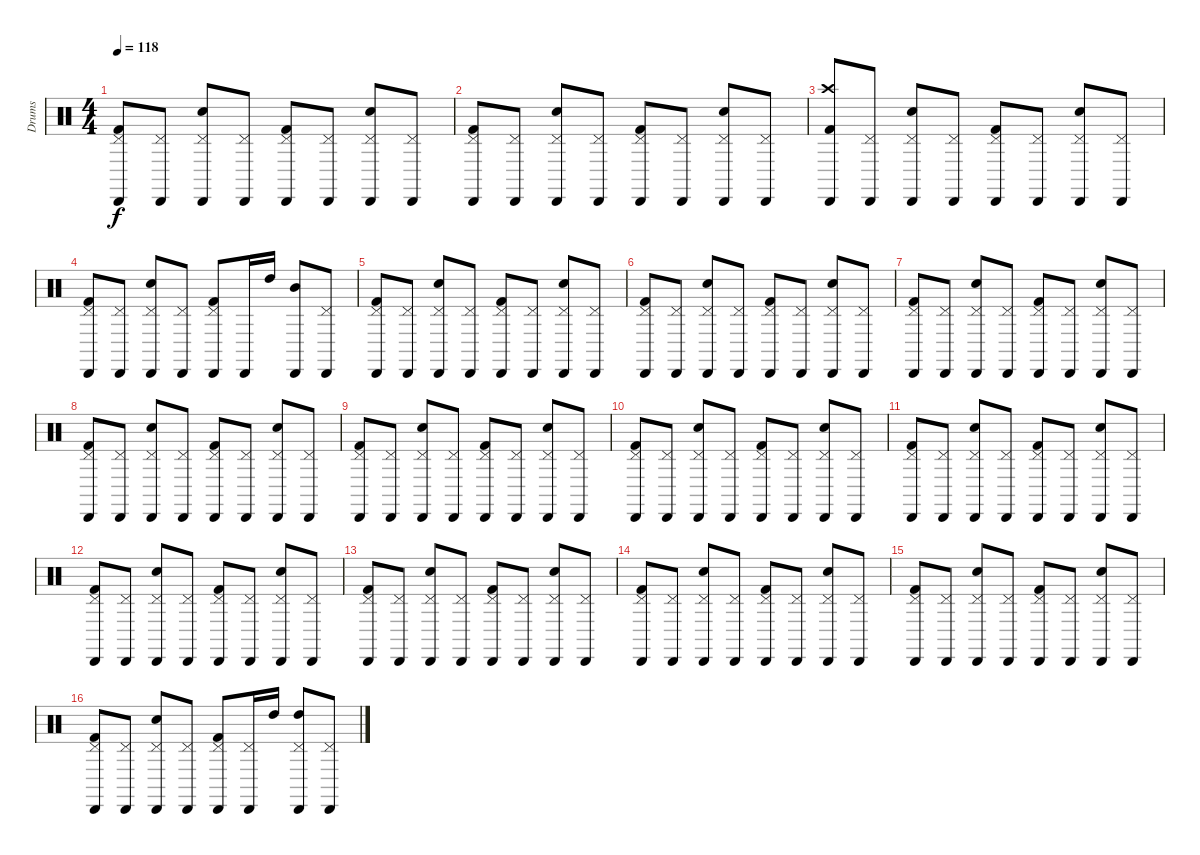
\track ("Drums" "Drums") {instrument percussion}
\staff {score}
\articulation defaults
\ts (4 4)
\tempo 118
\clef neutral
\ks c
("Kick (hit) 2" "Pedal Hi-Hat (hit)" "Cabasa (hit)").8{dy f} ("Pedal Hi-Hat (hit)" "Cabasa (hit)").8 ("Pedal Hi-Hat (hit)" "Electric Snare (hit)" "Cabasa (hit)").8 ("Pedal Hi-Hat (hit)" "Cabasa (hit)").8 ("Kick (hit) 2" "Pedal Hi-Hat (hit)" "Cabasa (hit)").8 ("Pedal Hi-Hat (hit)" "Cabasa (hit)").8 ("Pedal Hi-Hat (hit)" "Electric Snare (hit)" "Cabasa (hit)").8 ("Pedal Hi-Hat (hit)" "Cabasa (hit)").8 |
("Kick (hit) 2" "Pedal Hi-Hat (hit)" "Cabasa (hit)").8 ("Pedal Hi-Hat (hit)" "Cabasa (hit)").8 ("Pedal Hi-Hat (hit)" "Electric Snare (hit)" "Cabasa (hit)").8 ("Pedal Hi-Hat (hit)" "Cabasa (hit)").8 ("Kick (hit) 2" "Pedal Hi-Hat (hit)" "Cabasa (hit)").8 ("Pedal Hi-Hat (hit)" "Cabasa (hit)").8 ("Pedal Hi-Hat (hit)" "Electric Snare (hit)" "Cabasa (hit)").8 ("Pedal Hi-Hat (hit)" "Cabasa (hit)").8 |
("Kick (hit) 2" "Crash high (hit)" "Cabasa (hit)").8 ("Pedal Hi-Hat (hit)" "Cabasa (hit)").8 ("Pedal Hi-Hat (hit)" "Electric Snare (hit)" "Cabasa (hit)").8 ("Pedal Hi-Hat (hit)" "Cabasa (hit)").8 ("Kick (hit) 2" "Pedal Hi-Hat (hit)" "Cabasa (hit)").8 ("Pedal Hi-Hat (hit)" "Cabasa (hit)").8 ("Pedal Hi-Hat (hit)" "Electric Snare (hit)" "Cabasa (hit)").8 ("Pedal Hi-Hat (hit)" "Cabasa (hit)").8 |
("Kick (hit) 2" "Pedal Hi-Hat (hit)" "Cabasa (hit)").8 ("Pedal Hi-Hat (hit)" "Cabasa (hit)").8 ("Pedal Hi-Hat (hit)" "Electric Snare (hit)" "Cabasa (hit)").8 ("Pedal Hi-Hat (hit)" "Cabasa (hit)").8 ("Kick (hit) 2" "Pedal Hi-Hat (hit)" "Cabasa (hit)").8 "Cabasa (hit)".16 "High Tom (hit)".16 ("Mid Tom (hit)" "Cabasa (hit)").8 ("Pedal Hi-Hat (hit)" "Cabasa (hit)").8 |
("Kick (hit) 2" "Pedal Hi-Hat (hit)" "Cabasa (hit)").8 ("Pedal Hi-Hat (hit)" "Cabasa (hit)").8 ("Pedal Hi-Hat (hit)" "Electric Snare (hit)" "Cabasa (hit)").8 ("Pedal Hi-Hat (hit)" "Cabasa (hit)").8 ("Kick (hit) 2" "Pedal Hi-Hat (hit)" "Cabasa (hit)").8 ("Pedal Hi-Hat (hit)" "Cabasa (hit)").8 ("Pedal Hi-Hat (hit)" "Electric Snare (hit)" "Cabasa (hit)").8 ("Pedal Hi-Hat (hit)" "Cabasa (hit)").8 |
("Kick (hit) 2" "Pedal Hi-Hat (hit)" "Cabasa (hit)").8 ("Pedal Hi-Hat (hit)" "Cabasa (hit)").8 ("Pedal Hi-Hat (hit)" "Electric Snare (hit)" "Cabasa (hit)").8 ("Pedal Hi-Hat (hit)" "Cabasa (hit)").8 ("Kick (hit) 2" "Pedal Hi-Hat (hit)" "Cabasa (hit)").8 ("Pedal Hi-Hat (hit)" "Cabasa (hit)").8 ("Pedal Hi-Hat (hit)" "Electric Snare (hit)" "Cabasa (hit)").8 ("Pedal Hi-Hat (hit)" "Cabasa (hit)").8 |
("Kick (hit) 2" "Pedal Hi-Hat (hit)" "Cabasa (hit)").8 ("Pedal Hi-Hat (hit)" "Cabasa (hit)").8 ("Pedal Hi-Hat (hit)" "Electric Snare (hit)" "Cabasa (hit)").8 ("Pedal Hi-Hat (hit)" "Cabasa (hit)").8 ("Kick (hit) 2" "Pedal Hi-Hat (hit)" "Cabasa (hit)").8 ("Pedal Hi-Hat (hit)" "Cabasa (hit)").8 ("Pedal Hi-Hat (hit)" "Electric Snare (hit)" "Cabasa (hit)").8 ("Pedal Hi-Hat (hit)" "Cabasa (hit)").8 |
("Kick (hit) 2" "Pedal Hi-Hat (hit)" "Cabasa (hit)").8 ("Pedal Hi-Hat (hit)" "Cabasa (hit)").8 ("Pedal Hi-Hat (hit)" "Electric Snare (hit)" "Cabasa (hit)").8 ("Pedal Hi-Hat (hit)" "Cabasa (hit)").8 ("Kick (hit) 2" "Pedal Hi-Hat (hit)" "Cabasa (hit)").8 ("Pedal Hi-Hat (hit)" "Cabasa (hit)").8 ("Pedal Hi-Hat (hit)" "Electric Snare (hit)" "Cabasa (hit)").8 ("Pedal Hi-Hat (hit)" "Cabasa (hit)").8 |
("Kick (hit) 2" "Pedal Hi-Hat (hit)" "Cabasa (hit)").8 ("Pedal Hi-Hat (hit)" "Cabasa (hit)").8 ("Pedal Hi-Hat (hit)" "Electric Snare (hit)" "Cabasa (hit)").8 ("Pedal Hi-Hat (hit)" "Cabasa (hit)").8 ("Kick (hit) 2" "Pedal Hi-Hat (hit)" "Cabasa (hit)").8 ("Pedal Hi-Hat (hit)" "Cabasa (hit)").8 ("Pedal Hi-Hat (hit)" "Electric Snare (hit)" "Cabasa (hit)").8 ("Pedal Hi-Hat (hit)" "Cabasa (hit)").8 |
("Kick (hit) 2" "Pedal Hi-Hat (hit)" "Cabasa (hit)").8 ("Pedal Hi-Hat (hit)" "Cabasa (hit)").8 ("Pedal Hi-Hat (hit)" "Electric Snare (hit)" "Cabasa (hit)").8 ("Pedal Hi-Hat (hit)" "Cabasa (hit)").8 ("Kick (hit) 2" "Pedal Hi-Hat (hit)" "Cabasa (hit)").8 ("Pedal Hi-Hat (hit)" "Cabasa (hit)").8 ("Pedal Hi-Hat (hit)" "Electric Snare (hit)" "Cabasa (hit)").8 ("Pedal Hi-Hat (hit)" "Cabasa (hit)").8 |
("Kick (hit) 2" "Pedal Hi-Hat (hit)" "Cabasa (hit)").8 ("Pedal Hi-Hat (hit)" "Cabasa (hit)").8 ("Pedal Hi-Hat (hit)" "Electric Snare (hit)" "Cabasa (hit)").8 ("Pedal Hi-Hat (hit)" "Cabasa (hit)").8 ("Kick (hit) 2" "Pedal Hi-Hat (hit)" "Cabasa (hit)").8 ("Pedal Hi-Hat (hit)" "Cabasa (hit)").8 ("Pedal Hi-Hat (hit)" "Electric Snare (hit)" "Cabasa (hit)").8 ("Pedal Hi-Hat (hit)" "Cabasa (hit)").8 |
("Kick (hit) 2" "Pedal Hi-Hat (hit)" "Cabasa (hit)").8 ("Pedal Hi-Hat (hit)" "Cabasa (hit)").8 ("Pedal Hi-Hat (hit)" "Electric Snare (hit)" "Cabasa (hit)").8 ("Pedal Hi-Hat (hit)" "Cabasa (hit)").8 ("Kick (hit) 2" "Pedal Hi-Hat (hit)" "Cabasa (hit)").8 ("Pedal Hi-Hat (hit)" "Cabasa (hit)").8 ("Pedal Hi-Hat (hit)" "Electric Snare (hit)" "Cabasa (hit)").8 ("Pedal Hi-Hat (hit)" "Cabasa (hit)").8 |
("Kick (hit) 2" "Pedal Hi-Hat (hit)" "Cabasa (hit)").8 ("Pedal Hi-Hat (hit)" "Cabasa (hit)").8 ("Pedal Hi-Hat (hit)" "Electric Snare (hit)" "Cabasa (hit)").8 ("Pedal Hi-Hat (hit)" "Cabasa (hit)").8 ("Kick (hit) 2" "Pedal Hi-Hat (hit)" "Cabasa (hit)").8 ("Pedal Hi-Hat (hit)" "Cabasa (hit)").8 ("Pedal Hi-Hat (hit)" "Electric Snare (hit)" "Cabasa (hit)").8 ("Pedal Hi-Hat (hit)" "Cabasa (hit)").8 |
("Kick (hit) 2" "Pedal Hi-Hat (hit)" "Cabasa (hit)").8 ("Pedal Hi-Hat (hit)" "Cabasa (hit)").8 ("Pedal Hi-Hat (hit)" "Electric Snare (hit)" "Cabasa (hit)").8 ("Pedal Hi-Hat (hit)" "Cabasa (hit)").8 ("Kick (hit) 2" "Pedal Hi-Hat (hit)" "Cabasa (hit)").8 ("Pedal Hi-Hat (hit)" "Cabasa (hit)").8 ("Pedal Hi-Hat (hit)" "Electric Snare (hit)" "Cabasa (hit)").8 ("Pedal Hi-Hat (hit)" "Cabasa (hit)").8 |
("Kick (hit) 2" "Pedal Hi-Hat (hit)" "Cabasa (hit)").8 ("Pedal Hi-Hat (hit)" "Cabasa (hit)").8 ("Pedal Hi-Hat (hit)" "Electric Snare (hit)" "Cabasa (hit)").8 ("Pedal Hi-Hat (hit)" "Cabasa (hit)").8 ("Kick (hit) 2" "Pedal Hi-Hat (hit)" "Cabasa (hit)").8 ("Pedal Hi-Hat (hit)" "Cabasa (hit)").8 ("Pedal Hi-Hat (hit)" "Electric Snare (hit)" "Cabasa (hit)").8 ("Pedal Hi-Hat (hit)" "Cabasa (hit)").8 |
("Kick (hit) 2" "Pedal Hi-Hat (hit)" "Cabasa (hit)").8 ("Pedal Hi-Hat (hit)" "Cabasa (hit)").8 ("Pedal Hi-Hat (hit)" "Electric Snare (hit)" "Cabasa (hit)").8 ("Pedal Hi-Hat (hit)" "Cabasa (hit)").8 ("Kick (hit) 2" "Pedal Hi-Hat (hit)" "Cabasa (hit)").8 ("Pedal Hi-Hat (hit)" "Cabasa (hit)").16 "High Tom (hit)".16 ("Pedal Hi-Hat (hit)" "High Tom (hit)" "Cabasa (hit)").8 ("Pedal Hi-Hat (hit)" "Cabasa (hit)").8
